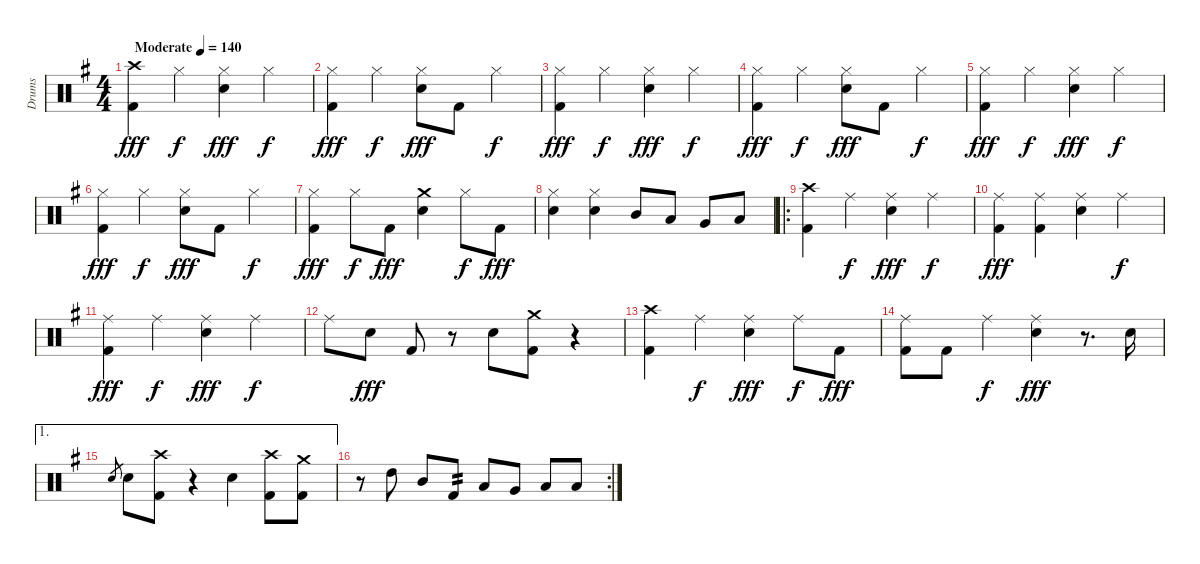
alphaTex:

\track ("Drums" "Drums") {instrument percussion}
\staff {score}
\articulation defaults
\ts (4 4)
\tempo (140 "Moderate")
\clef neutral
\ks eminor
("Crash high (hit)" "Kick (hit) 2").4{dy fff} "Hi-Hat (closed)".4{dy f} ("Electric Snare (hit)" "Hi-Hat (closed)").4{dy fff} "Hi-Hat (closed)".4{dy f} |
("Hi-Hat (closed)" "Kick (hit) 2").4{dy fff} "Hi-Hat (closed)".4{dy f} ("Electric Snare (hit)" "Hi-Hat (closed)").8{dy fff} "Kick (hit) 2".8 "Hi-Hat (closed)".4{dy f} |
("Hi-Hat (closed)" "Kick (hit) 2").4{dy fff} "Hi-Hat (closed)".4{dy f} ("Electric Snare (hit)" "Hi-Hat (closed)").4{dy fff} "Hi-Hat (closed)".4{dy f} |
("Hi-Hat (closed)" "Kick (hit) 2").4{dy fff} "Hi-Hat (closed)".4{dy f} ("Electric Snare (hit)" "Hi-Hat (closed)").8{dy fff} "Kick (hit) 2".8 "Hi-Hat (closed)".4{dy f} |
("Hi-Hat (closed)" "Kick (hit) 2").4{dy fff} "Hi-Hat (closed)".4{dy f} ("Electric Snare (hit)" "Hi-Hat (closed)").4{dy fff} "Hi-Hat (closed)".4{dy f} |
("Hi-Hat (closed)" "Kick (hit) 2").4{dy fff} "Hi-Hat (closed)".4{dy f} ("Electric Snare (hit)" "Hi-Hat (closed)").8{dy fff} "Kick (hit) 2".8 "Hi-Hat (closed)".4{dy f} |
("Hi-Hat (closed)" "Kick (hit) 2").4{dy fff} "Hi-Hat (closed)".8{dy f} "Kick (hit) 2".8{dy fff} ("Electric Snare (hit)" "Crash medium (hit)").4 "Hi-Hat (closed)".8{dy f} "Kick (hit) 2".8{dy fff} |
("Electric Snare (hit)" "Hi-Hat (closed)").4 ("Electric Snare (hit)" "Hi-Hat (closed)").4 "Mid Tom (hit)".8 "Low Tom (hit)".8 "Very Low Tom (hit)".8 "Low Floor Tom (hit)".8 |
\ro
("Crash high (hit)" "Kick (hit) 2").4 "Ride (middle)".4{dy f} ("Electric Snare (hit)" "Ride (middle)").4{dy fff} "Ride (middle)".4{dy f} |
("Ride (middle)" "Kick (hit) 2").4{dy fff} ("Ride (middle)" "Kick (hit) 2").4 ("Electric Snare (hit)" "Ride (middle)").4 "Ride (middle)".4{dy f} |
("Ride (middle)" "Kick (hit) 2").4{dy fff} "Ride (middle)".4{dy f} ("Electric Snare (hit)" "Ride (middle)").4{dy fff} "Ride (middle)".4{dy f} |
"Ride (middle)".8 "Electric Snare (hit)".8{dy fff} "Kick (hit) 2".8 r.8 "Electric Snare (hit)".8 ("Crash medium (hit)" "Kick (hit) 2").8 r.4 |
("Crash high (hit)" "Kick (hit) 2").4 "Ride (middle)".4{dy f} ("Electric Snare (hit)" "Ride (middle)").4{dy fff} "Ride (middle)".8{dy f} "Kick (hit) 2".8{dy fff} |
("Ride (middle)" "Kick (hit) 2").8 "Kick (hit) 2".8 "Ride (middle)".4{dy f} ("Electric Snare (hit)" "Ride (middle)").4{dy fff} r.8{d} "Electric Snare (hit)".16 |
\ae 1 "Electric Snare (hit)".8{gr} "Electric Snare (hit)".8
("Crash high (hit)" "Kick (hit) 2").8 r.4 "Electric Snare (hit)".4 ("Crash high (hit)" "Kick (hit) 2").8 ("Crash medium (hit)" "Kick (hit) 2").8 |
\rc 2
r.8 "High Tom (hit)".8 "Mid Tom (hit)".8 "Kick (hit) 2".8{tp 2} "Low Tom (hit)".8 "Very Low Tom (hit)".8 "Low Floor Tom (hit)".8 "Low Floor Tom (hit)".8
